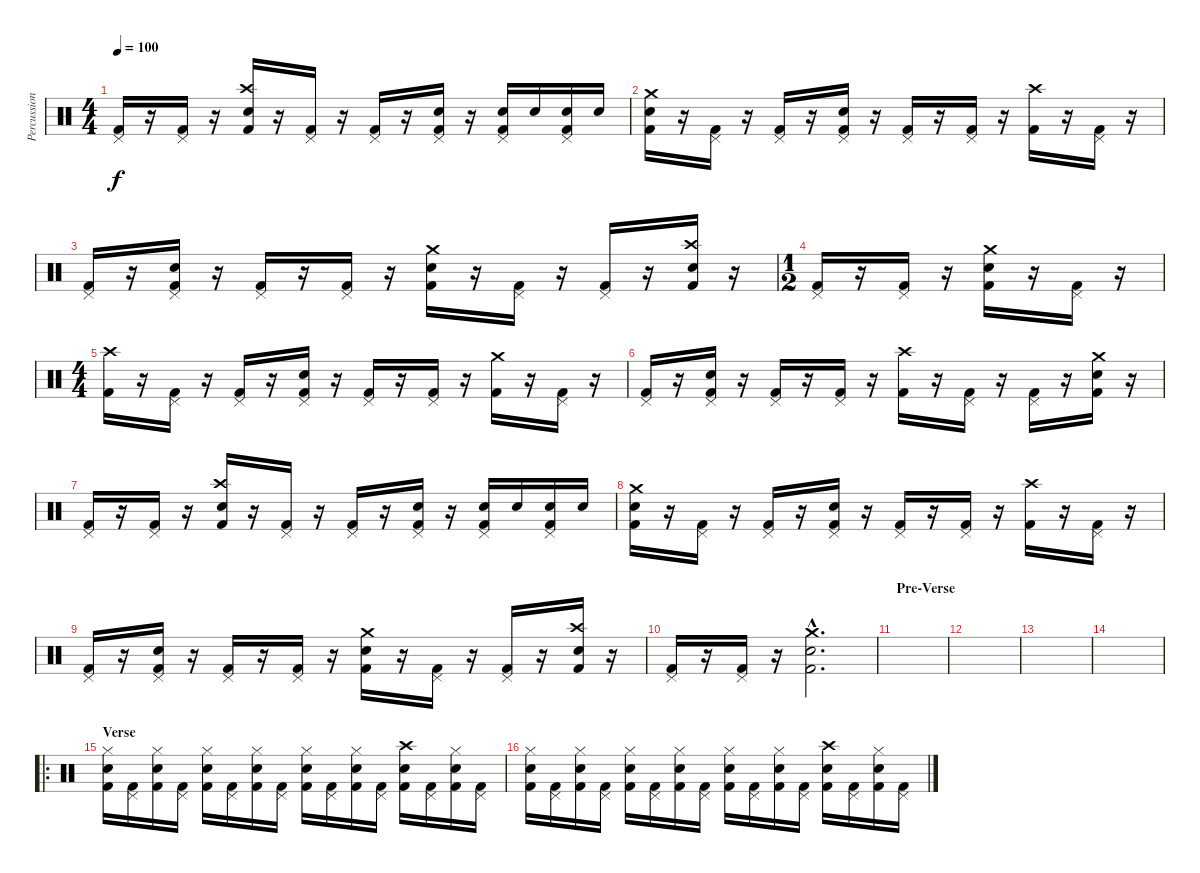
\track ("Percussion" "Percussion") {instrument percussion}
\staff {score}
\articulation defaults
\ts (4 4)
\tempo 100
\clef neutral
\ks c
("Pedal Hi-Hat (hit)" "Kick (hit) 2").16{dy f} r.16 ("Pedal Hi-Hat (hit)" "Kick (hit) 2").16 r.16 ("Crash high (hit)" "Snare (hit) 2" "Kick (hit) 2").16 r.16 ("Pedal Hi-Hat (hit)" "Kick (hit) 2").16 r.16 ("Pedal Hi-Hat (hit)" "Kick (hit) 2").16 r.16 ("Pedal Hi-Hat (hit)" "Snare (hit) 2" "Kick (hit) 2").16 r.16 ("Pedal Hi-Hat (hit)" "Snare (hit) 2" "Kick (hit) 2").16 "Snare (hit) 2".16 ("Pedal Hi-Hat (hit)" "Snare (hit) 2" "Kick (hit) 2").16 "Snare (hit) 2".16 |
("Crash medium (hit)" "Snare (hit) 2" "Kick (hit) 2").16 r.16 ("Pedal Hi-Hat (hit)" "Kick (hit) 2").16 r.16 ("Pedal Hi-Hat (hit)" "Kick (hit) 2").16 r.16 ("Pedal Hi-Hat (hit)" "Snare (hit) 2" "Kick (hit) 2").16 r.16 ("Pedal Hi-Hat (hit)" "Kick (hit) 2").16 r.16 ("Pedal Hi-Hat (hit)" "Kick (hit) 2").16 r.16 ("Crash high (hit)" "Kick (hit) 2").16 r.16 ("Pedal Hi-Hat (hit)" "Kick (hit) 2").16 r.16 |
("Pedal Hi-Hat (hit)" "Kick (hit) 2").16 r.16 ("Pedal Hi-Hat (hit)" "Snare (hit) 2" "Kick (hit) 2").16 r.16 ("Pedal Hi-Hat (hit)" "Kick (hit) 2").16 r.16 ("Pedal Hi-Hat (hit)" "Kick (hit) 2").16 r.16 ("Crash medium (hit)" "Snare (hit) 2" "Kick (hit) 2").16 r.16 ("Pedal Hi-Hat (hit)" "Kick (hit) 2").16 r.16 ("Pedal Hi-Hat (hit)" "Kick (hit) 2").16 r.16 ("Crash high (hit)" "Snare (hit) 2" "Kick (hit) 2").16 r.16 |
\ts (1 2)
("Pedal Hi-Hat (hit)" "Kick (hit) 2").16 r.16 ("Pedal Hi-Hat (hit)" "Kick (hit) 2").16 r.16 ("Crash medium (hit)" "Snare (hit) 2" "Kick (hit) 2").16 r.16 ("Pedal Hi-Hat (hit)" "Kick (hit) 2").16 r.16 |
\ts (4 4)
("Crash high (hit)" "Kick (hit) 2").16 r.16 ("Pedal Hi-Hat (hit)" "Kick (hit) 2").16 r.16 ("Pedal Hi-Hat (hit)" "Kick (hit) 2").16 r.16 ("Pedal Hi-Hat (hit)" "Snare (hit) 2" "Kick (hit) 2").16 r.16 ("Pedal Hi-Hat (hit)" "Kick (hit) 2").16 r.16 ("Pedal Hi-Hat (hit)" "Kick (hit) 2").16 r.16 ("Crash medium (hit)" "Kick (hit) 2").16 r.16 ("Pedal Hi-Hat (hit)" "Kick (hit) 2").16 r.16 |
("Pedal Hi-Hat (hit)" "Kick (hit) 2").16 r.16 ("Pedal Hi-Hat (hit)" "Snare (hit) 2" "Kick (hit) 2").16 r.16 ("Pedal Hi-Hat (hit)" "Kick (hit) 2").16 r.16 ("Pedal Hi-Hat (hit)" "Kick (hit) 2").16 r.16 ("Crash high (hit)" "Kick (hit) 2").16 r.16 ("Pedal Hi-Hat (hit)" "Kick (hit) 2").16 r.16 ("Pedal Hi-Hat (hit)" "Kick (hit) 2").16 r.16 ("Crash medium (hit)" "Snare (hit) 2" "Kick (hit) 2").16 r.16 |
("Pedal Hi-Hat (hit)" "Kick (hit) 2").16 r.16 ("Pedal Hi-Hat (hit)" "Kick (hit) 2").16 r.16 ("Crash high (hit)" "Snare (hit) 2" "Kick (hit) 2").16 r.16 ("Pedal Hi-Hat (hit)" "Kick (hit) 2").16 r.16 ("Pedal Hi-Hat (hit)" "Kick (hit) 2").16 r.16 ("Pedal Hi-Hat (hit)" "Snare (hit) 2" "Kick (hit) 2").16 r.16 ("Pedal Hi-Hat (hit)" "Snare (hit) 2" "Kick (hit) 2").16 "Snare (hit) 2".16 ("Pedal Hi-Hat (hit)" "Snare (hit) 2" "Kick (hit) 2").16 "Snare (hit) 2".16 |
("Crash medium (hit)" "Snare (hit) 2" "Kick (hit) 2").16 r.16 ("Pedal Hi-Hat (hit)" "Kick (hit) 2").16 r.16 ("Pedal Hi-Hat (hit)" "Kick (hit) 2").16 r.16 ("Pedal Hi-Hat (hit)" "Snare (hit) 2" "Kick (hit) 2").16 r.16 ("Pedal Hi-Hat (hit)" "Kick (hit) 2").16 r.16 ("Pedal Hi-Hat (hit)" "Kick (hit) 2").16 r.16 ("Crash high (hit)" "Kick (hit) 2").16 r.16 ("Pedal Hi-Hat (hit)" "Kick (hit) 2").16 r.16 |
("Pedal Hi-Hat (hit)" "Kick (hit) 2").16 r.16 ("Pedal Hi-Hat (hit)" "Snare (hit) 2" "Kick (hit) 2").16 r.16 ("Pedal Hi-Hat (hit)" "Kick (hit) 2").16 r.16 ("Pedal Hi-Hat (hit)" "Kick (hit) 2").16 r.16 ("Crash medium (hit)" "Snare (hit) 2" "Kick (hit) 2").16 r.16 ("Pedal Hi-Hat (hit)" "Kick (hit) 2").16 r.16 ("Pedal Hi-Hat (hit)" "Kick (hit) 2").16 r.16 ("Crash high (hit)" "Snare (hit) 2" "Kick (hit) 2").16 r.16 |
("Pedal Hi-Hat (hit)" "Kick (hit) 2").16 r.16 ("Pedal Hi-Hat (hit)" "Kick (hit) 2").16 r.16 ("Crash medium (hit)"{hac} "Snare (hit) 2"{hac} "Kick (hit) 2"{hac}).2{d} |
\section ("" "Pre-Verse")
|
|
|
|
\ro
\section ("" "Verse")
("Hi-Hat (closed)" "Snare (hit) 2" "Kick (hit) 2").16 ("Pedal Hi-Hat (hit)" "Kick (hit) 2").16 ("Hi-Hat (closed)" "Snare (hit) 2" "Kick (hit) 2").16 ("Pedal Hi-Hat (hit)" "Kick (hit) 2").16 ("Hi-Hat (closed)" "Snare (hit) 2" "Kick (hit) 2").16 ("Pedal Hi-Hat (hit)" "Kick (hit) 2").16 ("Hi-Hat (closed)" "Snare (hit) 2" "Kick (hit) 2").16 ("Pedal Hi-Hat (hit)" "Kick (hit) 2").16 ("Hi-Hat (closed)" "Snare (hit) 2" "Kick (hit) 2").16 ("Pedal Hi-Hat (hit)" "Kick (hit) 2").16 ("Hi-Hat (closed)" "Snare (hit) 2" "Kick (hit) 2").16 ("Pedal Hi-Hat (hit)" "Kick (hit) 2").16 ("Crash high (hit)" "Snare (hit) 2" "Kick (hit) 2").16 ("Pedal Hi-Hat (hit)" "Kick (hit) 2").16 ("Hi-Hat (closed)" "Snare (hit) 2" "Kick (hit) 2").16 ("Pedal Hi-Hat (hit)" "Kick (hit) 2").16 |
("Hi-Hat (closed)" "Snare (hit) 2" "Kick (hit) 2").16 ("Pedal Hi-Hat (hit)" "Kick (hit) 2").16 ("Hi-Hat (closed)" "Snare (hit) 2" "Kick (hit) 2").16 ("Pedal Hi-Hat (hit)" "Kick (hit) 2").16 ("Hi-Hat (closed)" "Snare (hit) 2" "Kick (hit) 2").16 ("Pedal Hi-Hat (hit)" "Kick (hit) 2").16 ("Hi-Hat (closed)" "Snare (hit) 2" "Kick (hit) 2").16 ("Pedal Hi-Hat (hit)" "Kick (hit) 2").16 ("Hi-Hat (closed)" "Snare (hit) 2" "Kick (hit) 2").16 ("Pedal Hi-Hat (hit)" "Kick (hit) 2").16 ("Hi-Hat (closed)" "Snare (hit) 2" "Kick (hit) 2").16 ("Pedal Hi-Hat (hit)" "Kick (hit) 2").16 ("Crash high (hit)" "Snare (hit) 2" "Kick (hit) 2").16 ("Pedal Hi-Hat (hit)" "Kick (hit) 2").16 ("Hi-Hat (closed)" "Snare (hit) 2" "Kick (hit) 2").16 ("Pedal Hi-Hat (hit)" "Kick (hit) 2").16
